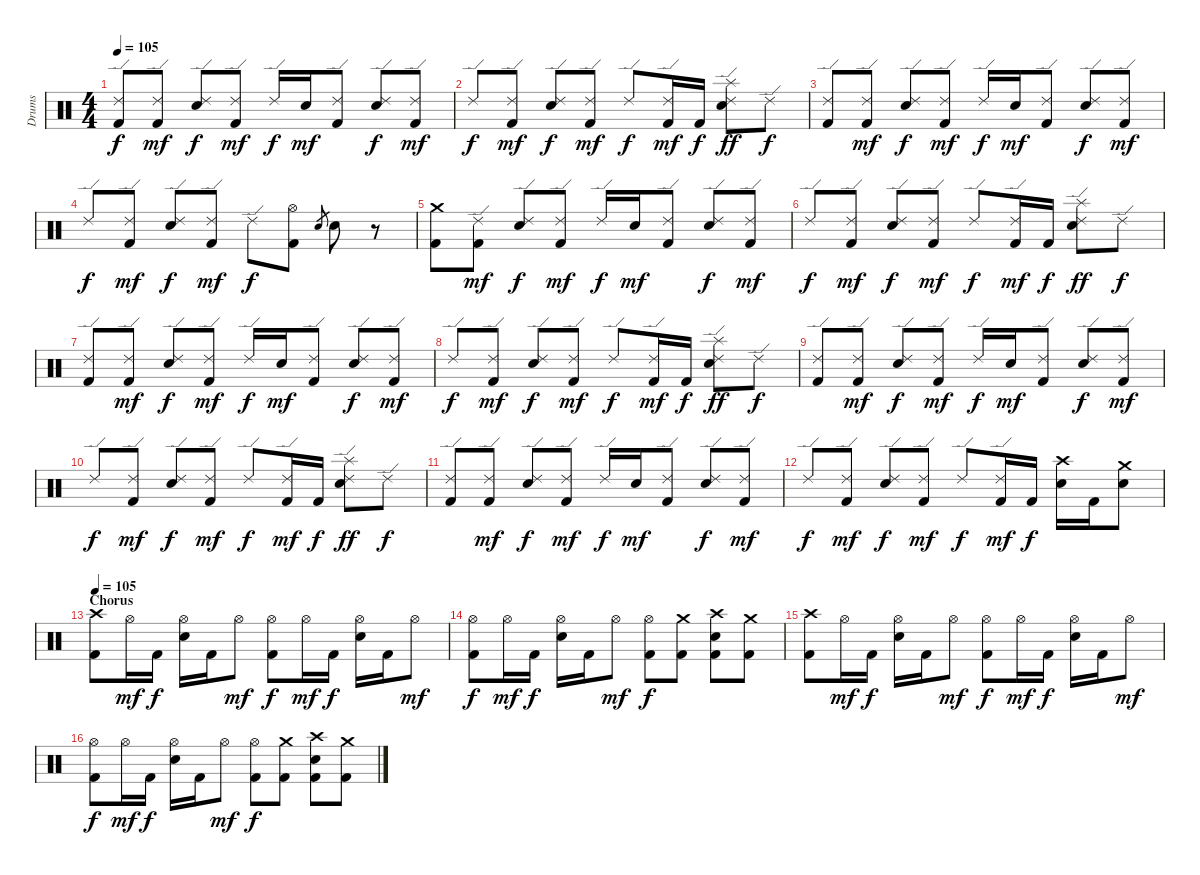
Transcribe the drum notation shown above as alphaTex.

\track ("Drums" "Drums") {instrument percussion}
\staff {score}
\articulation defaults
\ts (4 4)
\tempo 105
\clef neutral
\ks c
("Ride (edge) 2" "Kick (hit) 2").8{dy f} ("Ride (edge) 2" "Kick (hit) 2").8{dy mf} ("Ride (edge) 2" "Snare (hit) 2").8{dy f} ("Ride (edge) 2" "Kick (hit) 2").8{dy mf} "Ride (edge) 2".16{dy f} "Snare (hit) 2".16{dy mf} ("Ride (edge) 2" "Kick (hit) 2").8 ("Ride (edge) 2" "Snare (hit) 2").8{dy f} ("Ride (edge) 2" "Kick (hit) 2").8{dy mf} |
"Ride (edge) 2".8{dy f} ("Ride (edge) 2" "Kick (hit) 2").8{dy mf} ("Ride (edge) 2" "Snare (hit) 2").8{dy f} ("Ride (edge) 2" "Kick (hit) 2").8{dy mf} "Ride (edge) 2".8{dy f} ("Ride (edge) 2" "Kick (hit) 2").16{dy mf} "Kick (hit) 2".16{dy f} ("Splash (hit)" "Ride (edge) 2" "Snare (hit) 2").8{dy ff} "Ride (edge) 2".8{dy f} |
("Ride (edge) 2" "Kick (hit) 2").8 ("Ride (edge) 2" "Kick (hit) 2").8{dy mf} ("Ride (edge) 2" "Snare (hit) 2").8{dy f} ("Ride (edge) 2" "Kick (hit) 2").8{dy mf} "Ride (edge) 2".16{dy f} "Snare (hit) 2".16{dy mf} ("Ride (edge) 2" "Kick (hit) 2").8 ("Ride (edge) 2" "Snare (hit) 2").8{dy f} ("Ride (edge) 2" "Kick (hit) 2").8{dy mf} |
"Ride (edge) 2".8{dy f} ("Ride (edge) 2" "Kick (hit) 2").8{dy mf} ("Ride (edge) 2" "Snare (hit) 2").8{dy f} ("Ride (edge) 2" "Kick (hit) 2").8{dy mf} "Ride (edge) 2".8{dy f} ("Hi-Hat (open)" "Kick (hit) 2").8 "Snare (hit) 2".8{gr} "Snare (hit) 2".8 r.8 |
("Crash medium (hit)" "Kick (hit) 2").8 ("Ride (edge) 2" "Kick (hit) 2").8{dy mf} ("Ride (edge) 2" "Snare (hit) 2").8{dy f} ("Ride (edge) 2" "Kick (hit) 2").8{dy mf} "Ride (edge) 2".16{dy f} "Snare (hit) 2".16{dy mf} ("Ride (edge) 2" "Kick (hit) 2").8 ("Ride (edge) 2" "Snare (hit) 2").8{dy f} ("Ride (edge) 2" "Kick (hit) 2").8{dy mf} |
"Ride (edge) 2".8{dy f} ("Ride (edge) 2" "Kick (hit) 2").8{dy mf} ("Ride (edge) 2" "Snare (hit) 2").8{dy f} ("Ride (edge) 2" "Kick (hit) 2").8{dy mf} "Ride (edge) 2".8{dy f} ("Ride (edge) 2" "Kick (hit) 2").16{dy mf} "Kick (hit) 2".16{dy f} ("Splash (hit)" "Ride (edge) 2" "Snare (hit) 2").8{dy ff} "Ride (edge) 2".8{dy f} |
("Ride (edge) 2" "Kick (hit) 2").8 ("Ride (edge) 2" "Kick (hit) 2").8{dy mf} ("Ride (edge) 2" "Snare (hit) 2").8{dy f} ("Ride (edge) 2" "Kick (hit) 2").8{dy mf} "Ride (edge) 2".16{dy f} "Snare (hit) 2".16{dy mf} ("Ride (edge) 2" "Kick (hit) 2").8 ("Ride (edge) 2" "Snare (hit) 2").8{dy f} ("Ride (edge) 2" "Kick (hit) 2").8{dy mf} |
"Ride (edge) 2".8{dy f} ("Ride (edge) 2" "Kick (hit) 2").8{dy mf} ("Ride (edge) 2" "Snare (hit) 2").8{dy f} ("Ride (edge) 2" "Kick (hit) 2").8{dy mf} "Ride (edge) 2".8{dy f} ("Ride (edge) 2" "Kick (hit) 2").16{dy mf} "Kick (hit) 2".16{dy f} ("Splash (hit)" "Ride (edge) 2" "Snare (hit) 2").8{dy ff} "Ride (edge) 2".8{dy f} |
("Ride (edge) 2" "Kick (hit) 2").8 ("Ride (edge) 2" "Kick (hit) 2").8{dy mf} ("Ride (edge) 2" "Snare (hit) 2").8{dy f} ("Ride (edge) 2" "Kick (hit) 2").8{dy mf} "Ride (edge) 2".16{dy f} "Snare (hit) 2".16{dy mf} ("Ride (edge) 2" "Kick (hit) 2").8 ("Ride (edge) 2" "Snare (hit) 2").8{dy f} ("Ride (edge) 2" "Kick (hit) 2").8{dy mf} |
"Ride (edge) 2".8{dy f} ("Ride (edge) 2" "Kick (hit) 2").8{dy mf} ("Ride (edge) 2" "Snare (hit) 2").8{dy f} ("Ride (edge) 2" "Kick (hit) 2").8{dy mf} "Ride (edge) 2".8{dy f} ("Ride (edge) 2" "Kick (hit) 2").16{dy mf} "Kick (hit) 2".16{dy f} ("Splash (hit)" "Ride (edge) 2" "Snare (hit) 2").8{dy ff} "Ride (edge) 2".8{dy f} |
("Ride (edge) 2" "Kick (hit) 2").8 ("Ride (edge) 2" "Kick (hit) 2").8{dy mf} ("Ride (edge) 2" "Snare (hit) 2").8{dy f} ("Ride (edge) 2" "Kick (hit) 2").8{dy mf} "Ride (edge) 2".16{dy f} "Snare (hit) 2".16{dy mf} ("Ride (edge) 2" "Kick (hit) 2").8 ("Ride (edge) 2" "Snare (hit) 2").8{dy f} ("Ride (edge) 2" "Kick (hit) 2").8{dy mf} |
"Ride (edge) 2".8{dy f} ("Ride (edge) 2" "Kick (hit) 2").8{dy mf} ("Ride (edge) 2" "Snare (hit) 2").8{dy f} ("Ride (edge) 2" "Kick (hit) 2").8{dy mf} "Ride (edge) 2".8{dy f} ("Ride (edge) 2" "Kick (hit) 2").16{dy mf} "Kick (hit) 2".16{dy f} ("Crash high (hit)" "Snare (hit) 2").16 "Kick (hit) 2".16 ("Crash medium (hit)" "Snare (hit) 2").8 |
\section ("" "Chorus")
\tempo 105
("Crash high (hit)" "Kick (hit) 2").8{volume 12} "Hi-Hat (open)".16{dy mf} "Kick (hit) 2".16{dy f} ("Hi-Hat (open)" "Snare (hit) 2").16 "Kick (hit) 2".16 "Hi-Hat (open)".8{dy mf} ("Hi-Hat (open)" "Kick (hit) 2").8{dy f} "Hi-Hat (open)".16{dy mf} "Kick (hit) 2".16{dy f} ("Hi-Hat (open)" "Snare (hit) 2").16 "Kick (hit) 2".16 "Hi-Hat (open)".8{dy mf} |
("Hi-Hat (open)" "Kick (hit) 2").8{dy f} "Hi-Hat (open)".16{dy mf} "Kick (hit) 2".16{dy f} ("Hi-Hat (open)" "Snare (hit) 2").16 "Kick (hit) 2".16 "Hi-Hat (open)".8{dy mf} ("Hi-Hat (open)" "Kick (hit) 2").8{dy f} ("Crash medium (hit)" "Kick (hit) 2").8 ("Crash high (hit)" "Snare (hit) 2" "Kick (hit) 2").8 ("Crash medium (hit)" "Kick (hit) 2").8 |
("Crash high (hit)" "Kick (hit) 2").8 "Hi-Hat (open)".16{dy mf} "Kick (hit) 2".16{dy f} ("Hi-Hat (open)" "Snare (hit) 2").16 "Kick (hit) 2".16 "Hi-Hat (open)".8{dy mf} ("Hi-Hat (open)" "Kick (hit) 2").8{dy f} "Hi-Hat (open)".16{dy mf} "Kick (hit) 2".16{dy f} ("Hi-Hat (open)" "Snare (hit) 2").16 "Kick (hit) 2".16 "Hi-Hat (open)".8{dy mf} |
("Hi-Hat (open)" "Kick (hit) 2").8{dy f} "Hi-Hat (open)".16{dy mf} "Kick (hit) 2".16{dy f} ("Hi-Hat (open)" "Snare (hit) 2").16 "Kick (hit) 2".16 "Hi-Hat (open)".8{dy mf} ("Hi-Hat (open)" "Kick (hit) 2").8{dy f} ("Crash medium (hit)" "Kick (hit) 2").8 ("Crash high (hit)" "Snare (hit) 2" "Kick (hit) 2").8 ("Crash medium (hit)" "Kick (hit) 2").8
